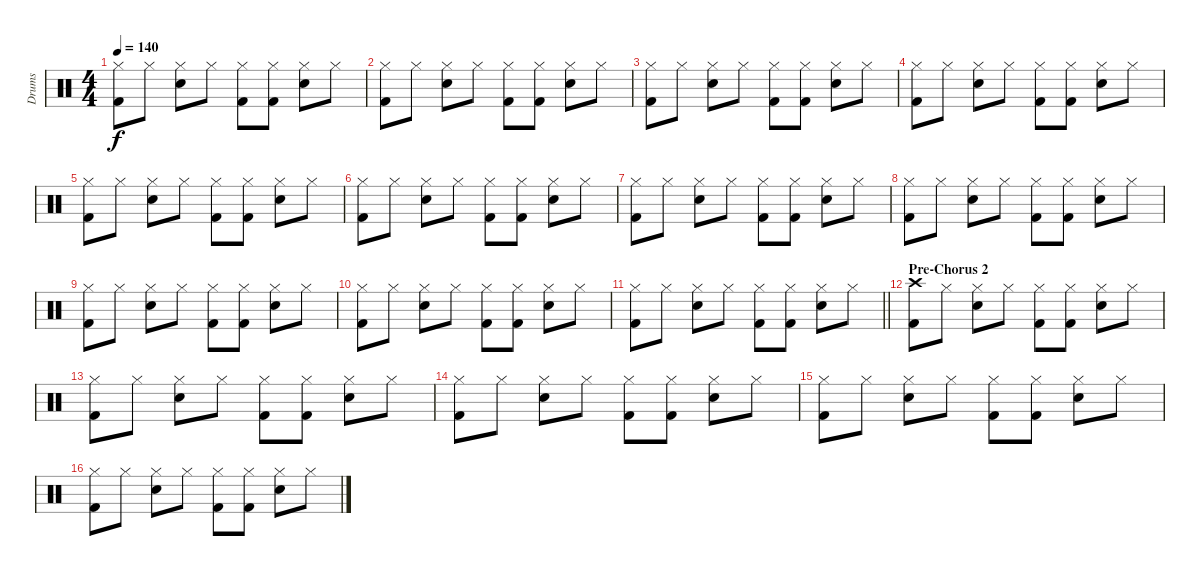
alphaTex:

\track ("Drums" "Drums") {instrument percussion}
\staff {score}
\articulation defaults
\ts (4 4)
\tempo 140
\clef neutral
\ks c
("Hi-Hat (closed)" "Kick (hit) 2").8{dy f} "Hi-Hat (closed)".8 ("Hi-Hat (closed)" "Electric Snare (hit)").8 "Hi-Hat (closed)".8 ("Hi-Hat (closed)" "Kick (hit) 2").8 ("Hi-Hat (closed)" "Kick (hit) 2").8 ("Hi-Hat (closed)" "Electric Snare (hit)").8 "Hi-Hat (closed)".8 |
("Hi-Hat (closed)" "Kick (hit) 2").8 "Hi-Hat (closed)".8 ("Hi-Hat (closed)" "Electric Snare (hit)").8 "Hi-Hat (closed)".8 ("Hi-Hat (closed)" "Kick (hit) 2").8 ("Hi-Hat (closed)" "Kick (hit) 2").8 ("Hi-Hat (closed)" "Electric Snare (hit)").8 "Hi-Hat (closed)".8 |
("Hi-Hat (closed)" "Kick (hit) 2").8 "Hi-Hat (closed)".8 ("Hi-Hat (closed)" "Electric Snare (hit)").8 "Hi-Hat (closed)".8 ("Hi-Hat (closed)" "Kick (hit) 2").8 ("Hi-Hat (closed)" "Kick (hit) 2").8 ("Hi-Hat (closed)" "Electric Snare (hit)").8 "Hi-Hat (closed)".8 |
("Hi-Hat (closed)" "Kick (hit) 2").8 "Hi-Hat (closed)".8 ("Hi-Hat (closed)" "Electric Snare (hit)").8 "Hi-Hat (closed)".8 ("Hi-Hat (closed)" "Kick (hit) 2").8 ("Hi-Hat (closed)" "Kick (hit) 2").8 ("Hi-Hat (closed)" "Electric Snare (hit)").8 "Hi-Hat (closed)".8 |
("Hi-Hat (closed)" "Kick (hit) 2").8 "Hi-Hat (closed)".8 ("Hi-Hat (closed)" "Electric Snare (hit)").8 "Hi-Hat (closed)".8 ("Hi-Hat (closed)" "Kick (hit) 2").8 ("Hi-Hat (closed)" "Kick (hit) 2").8 ("Hi-Hat (closed)" "Electric Snare (hit)").8 "Hi-Hat (closed)".8 |
("Hi-Hat (closed)" "Kick (hit) 2").8 "Hi-Hat (closed)".8 ("Hi-Hat (closed)" "Electric Snare (hit)").8 "Hi-Hat (closed)".8 ("Hi-Hat (closed)" "Kick (hit) 2").8 ("Hi-Hat (closed)" "Kick (hit) 2").8 ("Hi-Hat (closed)" "Electric Snare (hit)").8 "Hi-Hat (closed)".8 |
("Hi-Hat (closed)" "Kick (hit) 2").8 "Hi-Hat (closed)".8 ("Hi-Hat (closed)" "Electric Snare (hit)").8 "Hi-Hat (closed)".8 ("Hi-Hat (closed)" "Kick (hit) 2").8 ("Hi-Hat (closed)" "Kick (hit) 2").8 ("Hi-Hat (closed)" "Electric Snare (hit)").8 "Hi-Hat (closed)".8 |
("Hi-Hat (closed)" "Kick (hit) 2").8 "Hi-Hat (closed)".8 ("Hi-Hat (closed)" "Electric Snare (hit)").8 "Hi-Hat (closed)".8 ("Hi-Hat (closed)" "Kick (hit) 2").8 ("Hi-Hat (closed)" "Kick (hit) 2").8 ("Hi-Hat (closed)" "Electric Snare (hit)").8 "Hi-Hat (closed)".8 |
("Hi-Hat (closed)" "Kick (hit) 2").8 "Hi-Hat (closed)".8 ("Hi-Hat (closed)" "Electric Snare (hit)").8 "Hi-Hat (closed)".8 ("Hi-Hat (closed)" "Kick (hit) 2").8 ("Hi-Hat (closed)" "Kick (hit) 2").8 ("Hi-Hat (closed)" "Electric Snare (hit)").8 "Hi-Hat (closed)".8 |
("Hi-Hat (closed)" "Kick (hit) 2").8 "Hi-Hat (closed)".8 ("Hi-Hat (closed)" "Electric Snare (hit)").8 "Hi-Hat (closed)".8 ("Hi-Hat (closed)" "Kick (hit) 2").8 ("Hi-Hat (closed)" "Kick (hit) 2").8 ("Hi-Hat (closed)" "Electric Snare (hit)").8 "Hi-Hat (closed)".8 |
\barLineRight lightlight
("Hi-Hat (closed)" "Kick (hit) 2").8 "Hi-Hat (closed)".8 ("Hi-Hat (closed)" "Electric Snare (hit)").8 "Hi-Hat (closed)".8 ("Hi-Hat (closed)" "Kick (hit) 2").8 ("Hi-Hat (closed)" "Kick (hit) 2").8 ("Hi-Hat (closed)" "Electric Snare (hit)").8 "Hi-Hat (closed)".8 |
\section ("" "Pre-Chorus 2")
("Crash high (hit)" "Kick (hit) 2").8 "Hi-Hat (closed)".8 ("Hi-Hat (closed)" "Electric Snare (hit)").8 "Hi-Hat (closed)".8 ("Hi-Hat (closed)" "Kick (hit) 2").8 ("Hi-Hat (closed)" "Kick (hit) 2").8 ("Hi-Hat (closed)" "Electric Snare (hit)").8 "Hi-Hat (closed)".8 |
("Hi-Hat (closed)" "Kick (hit) 2").8 "Hi-Hat (closed)".8 ("Hi-Hat (closed)" "Electric Snare (hit)").8 "Hi-Hat (closed)".8 ("Hi-Hat (closed)" "Kick (hit) 2").8 ("Hi-Hat (closed)" "Kick (hit) 2").8 ("Hi-Hat (closed)" "Electric Snare (hit)").8 "Hi-Hat (closed)".8 |
("Hi-Hat (closed)" "Kick (hit) 2").8 "Hi-Hat (closed)".8 ("Hi-Hat (closed)" "Electric Snare (hit)").8 "Hi-Hat (closed)".8 ("Hi-Hat (closed)" "Kick (hit) 2").8 ("Hi-Hat (closed)" "Kick (hit) 2").8 ("Hi-Hat (closed)" "Electric Snare (hit)").8 "Hi-Hat (closed)".8 |
("Hi-Hat (closed)" "Kick (hit) 2").8 "Hi-Hat (closed)".8 ("Hi-Hat (closed)" "Electric Snare (hit)").8 "Hi-Hat (closed)".8 ("Hi-Hat (closed)" "Kick (hit) 2").8 ("Hi-Hat (closed)" "Kick (hit) 2").8 ("Hi-Hat (closed)" "Electric Snare (hit)").8 "Hi-Hat (closed)".8 |
("Hi-Hat (closed)" "Kick (hit) 2").8 "Hi-Hat (closed)".8 ("Hi-Hat (closed)" "Electric Snare (hit)").8 "Hi-Hat (closed)".8 ("Hi-Hat (closed)" "Kick (hit) 2").8 ("Hi-Hat (closed)" "Kick (hit) 2").8 ("Hi-Hat (closed)" "Electric Snare (hit)").8 "Hi-Hat (closed)".8
